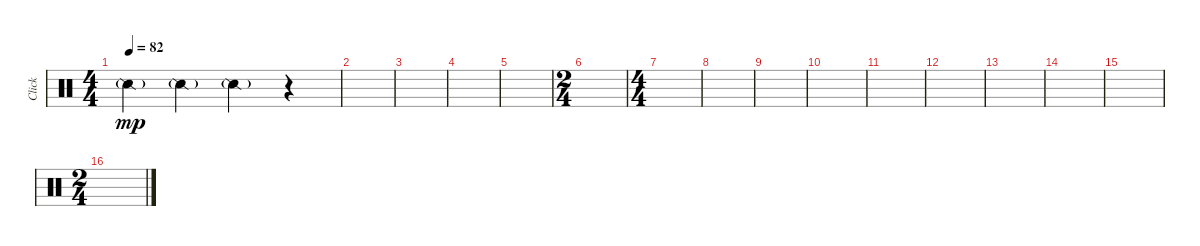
\track ("Click" "Click") {instrument percussion}
\staff {score}
\articulation defaults
\ts (4 4)
\tempo 82
\clef neutral
\ks c "Snare (side stick) 2"{g}.4{dy mp} "Snare (side stick) 2"{g}.4 "Snare (side stick) 2"{g}.4
r.4 |
|
|
|
|
\ts (2 4)
|
\ts (4 4)
|
|
|
|
|
|
|
|
|
\ts (2 4)
